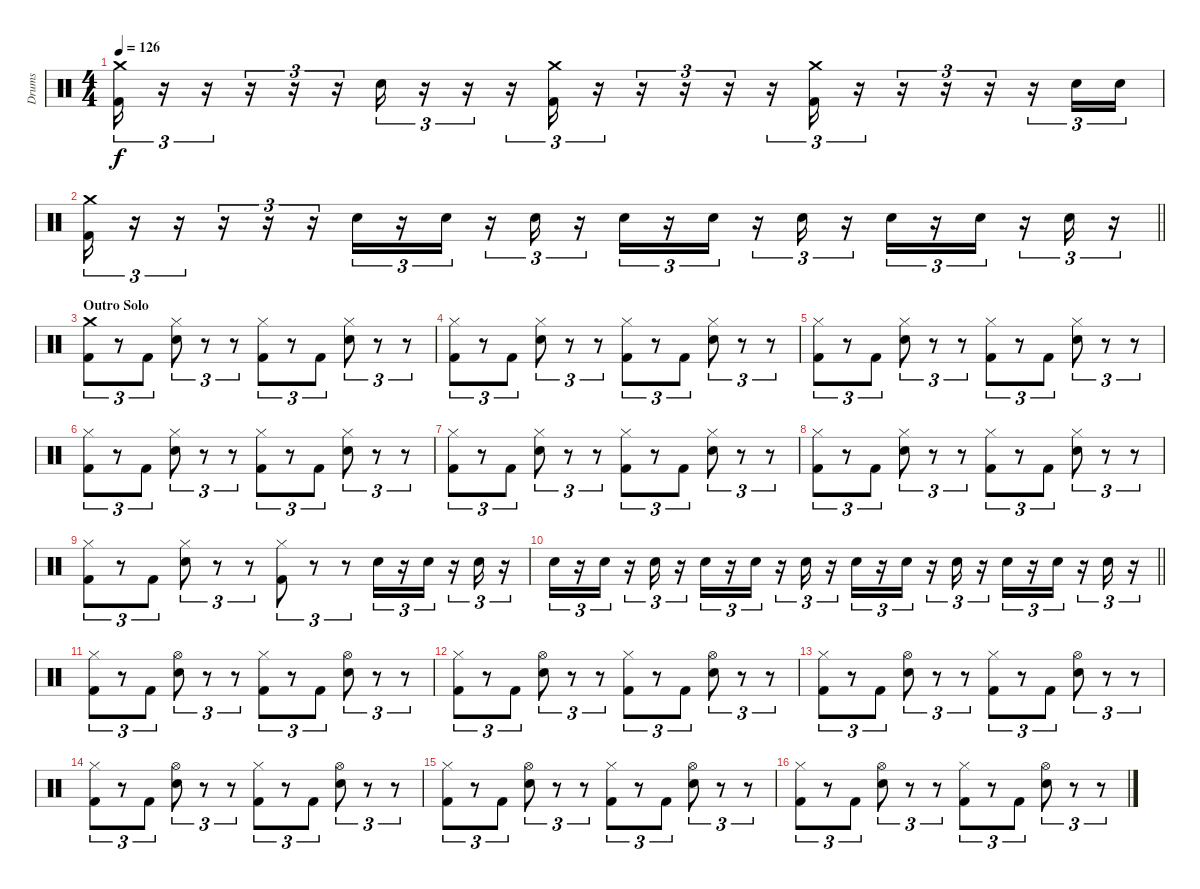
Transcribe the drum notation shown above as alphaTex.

\track ("Drums" "Drums") {instrument percussion}
\staff {score}
\articulation defaults
\ts (4 4)
\tempo 126
\clef neutral
\ks c
("Crash medium (hit)" "Kick (hit) 2").16{tu (3 2) dy f} r.16{tu (3 2)} r.16{tu (3 2)} r.16{tu (3 2)} r.16{tu (3 2)} r.16{tu (3 2)} "Snare (hit) 2".16{tu (3 2)} r.16{tu (3 2)} r.16{tu (3 2)} r.16{tu (3 2)} ("Crash medium (hit)" "Kick (hit) 2").16{tu (3 2)} r.16{tu (3 2)} r.16{tu (3 2)} r.16{tu (3 2)} r.16{tu (3 2)} r.16{tu (3 2)} ("Crash medium (hit)" "Kick (hit) 2").16{tu (3 2)} r.16{tu (3 2)} r.16{tu (3 2)} r.16{tu (3 2)} r.16{tu (3 2)} r.16{tu (3 2)} "Snare (hit) 2".16{tu (3 2)} "Snare (hit) 2".16{tu (3 2)} |
\barLineRight lightlight
("Crash medium (hit)" "Kick (hit) 2").16{tu (3 2)} r.16{tu (3 2)} r.16{tu (3 2)} r.16{tu (3 2)} r.16{tu (3 2)} r.16{tu (3 2)} "Snare (hit) 2".16{tu (3 2)} r.16{tu (3 2)} "Snare (hit) 2".16{tu (3 2)} r.16{tu (3 2)} "Snare (hit) 2".16{tu (3 2)} r.16{tu (3 2)} "Snare (hit) 2".16{tu (3 2)} r.16{tu (3 2)} "Snare (hit) 2".16{tu (3 2)} r.16{tu (3 2)} "Snare (hit) 2".16{tu (3 2)} r.16{tu (3 2)} "Snare (hit) 2".16{tu (3 2)} r.16{tu (3 2)} "Snare (hit) 2".16{tu (3 2)} r.16{tu (3 2)} "Snare (hit) 2".16{tu (3 2)} r.16{tu (3 2)} |
\section ("" "Outro Solo")
("Crash medium (hit)" "Kick (hit) 2").8{tu (3 2)} r.8{tu (3 2)} "Kick (hit) 2".8{tu (3 2)} ("Hi-Hat (closed)" "Snare (hit) 2").8{tu (3 2)} r.8{tu (3 2)} r.8{tu (3 2)} ("Hi-Hat (closed)" "Kick (hit) 2").8{tu (3 2)} r.8{tu (3 2)} "Kick (hit) 2".8{tu (3 2)} ("Hi-Hat (closed)" "Snare (hit) 2").8{tu (3 2)} r.8{tu (3 2)} r.8{tu (3 2)} |
("Hi-Hat (closed)" "Kick (hit) 2").8{tu (3 2)} r.8{tu (3 2)} "Kick (hit) 2".8{tu (3 2)} ("Hi-Hat (closed)" "Snare (hit) 2").8{tu (3 2)} r.8{tu (3 2)} r.8{tu (3 2)} ("Hi-Hat (closed)" "Kick (hit) 2").8{tu (3 2)} r.8{tu (3 2)} "Kick (hit) 2".8{tu (3 2)} ("Hi-Hat (closed)" "Snare (hit) 2").8{tu (3 2)} r.8{tu (3 2)} r.8{tu (3 2)} |
("Hi-Hat (closed)" "Kick (hit) 2").8{tu (3 2)} r.8{tu (3 2)} "Kick (hit) 2".8{tu (3 2)} ("Hi-Hat (closed)" "Snare (hit) 2").8{tu (3 2)} r.8{tu (3 2)} r.8{tu (3 2)} ("Hi-Hat (closed)" "Kick (hit) 2").8{tu (3 2)} r.8{tu (3 2)} "Kick (hit) 2".8{tu (3 2)} ("Hi-Hat (closed)" "Snare (hit) 2").8{tu (3 2)} r.8{tu (3 2)} r.8{tu (3 2)} |
("Hi-Hat (closed)" "Kick (hit) 2").8{tu (3 2)} r.8{tu (3 2)} "Kick (hit) 2".8{tu (3 2)} ("Hi-Hat (closed)" "Snare (hit) 2").8{tu (3 2)} r.8{tu (3 2)} r.8{tu (3 2)} ("Hi-Hat (closed)" "Kick (hit) 2").8{tu (3 2)} r.8{tu (3 2)} "Kick (hit) 2".8{tu (3 2)} ("Hi-Hat (closed)" "Snare (hit) 2").8{tu (3 2)} r.8{tu (3 2)} r.8{tu (3 2)} |
("Hi-Hat (closed)" "Kick (hit) 2").8{tu (3 2)} r.8{tu (3 2)} "Kick (hit) 2".8{tu (3 2)} ("Hi-Hat (closed)" "Snare (hit) 2").8{tu (3 2)} r.8{tu (3 2)} r.8{tu (3 2)} ("Hi-Hat (closed)" "Kick (hit) 2").8{tu (3 2)} r.8{tu (3 2)} "Kick (hit) 2".8{tu (3 2)} ("Hi-Hat (closed)" "Snare (hit) 2").8{tu (3 2)} r.8{tu (3 2)} r.8{tu (3 2)} |
("Hi-Hat (closed)" "Kick (hit) 2").8{tu (3 2)} r.8{tu (3 2)} "Kick (hit) 2".8{tu (3 2)} ("Hi-Hat (closed)" "Snare (hit) 2").8{tu (3 2)} r.8{tu (3 2)} r.8{tu (3 2)} ("Hi-Hat (closed)" "Kick (hit) 2").8{tu (3 2)} r.8{tu (3 2)} "Kick (hit) 2".8{tu (3 2)} ("Hi-Hat (closed)" "Snare (hit) 2").8{tu (3 2)} r.8{tu (3 2)} r.8{tu (3 2)} |
("Hi-Hat (closed)" "Kick (hit) 2").8{tu (3 2)} r.8{tu (3 2)} "Kick (hit) 2".8{tu (3 2)} ("Hi-Hat (closed)" "Snare (hit) 2").8{tu (3 2)} r.8{tu (3 2)} r.8{tu (3 2)} ("Hi-Hat (closed)" "Kick (hit) 2").8{tu (3 2)} r.8{tu (3 2)} r.8{tu (3 2)} "Snare (hit) 2".16{tu (3 2)} r.16{tu (3 2)} "Snare (hit) 2".16{tu (3 2)} r.16{tu (3 2)} "Snare (hit) 2".16{tu (3 2)} r.16{tu (3 2)} |
\barLineRight lightlight "Snare (hit) 2".16{tu (3 2)}
r.16{tu (3 2)} "Snare (hit) 2".16{tu (3 2)} r.16{tu (3 2)} "Snare (hit) 2".16{tu (3 2)} r.16{tu (3 2)} "Snare (hit) 2".16{tu (3 2)} r.16{tu (3 2)} "Snare (hit) 2".16{tu (3 2)} r.16{tu (3 2)} "Snare (hit) 2".16{tu (3 2)} r.16{tu (3 2)} "Snare (hit) 2".16{tu (3 2)} r.16{tu (3 2)} "Snare (hit) 2".16{tu (3 2)} r.16{tu (3 2)} "Snare (hit) 2".16{tu (3 2)} r.16{tu (3 2)} "Snare (hit) 2".16{tu (3 2)} r.16{tu (3 2)} "Snare (hit) 2".16{tu (3 2)} r.16{tu (3 2)} "Snare (hit) 2".16{tu (3 2)} r.16{tu (3 2)} |
("Hi-Hat (closed)" "Kick (hit) 2").8{tu (3 2)} r.8{tu (3 2)} "Kick (hit) 2".8{tu (3 2)} ("Hi-Hat (open)" "Snare (hit) 2").8{tu (3 2)} r.8{tu (3 2)} r.8{tu (3 2)} ("Hi-Hat (closed)" "Kick (hit) 2").8{tu (3 2)} r.8{tu (3 2)} "Kick (hit) 2".8{tu (3 2)} ("Hi-Hat (open)" "Snare (hit) 2").8{tu (3 2)} r.8{tu (3 2)} r.8{tu (3 2)} |
("Hi-Hat (closed)" "Kick (hit) 2").8{tu (3 2)} r.8{tu (3 2)} "Kick (hit) 2".8{tu (3 2)} ("Hi-Hat (open)" "Snare (hit) 2").8{tu (3 2)} r.8{tu (3 2)} r.8{tu (3 2)} ("Hi-Hat (closed)" "Kick (hit) 2").8{tu (3 2)} r.8{tu (3 2)} "Kick (hit) 2".8{tu (3 2)} ("Hi-Hat (open)" "Snare (hit) 2").8{tu (3 2)} r.8{tu (3 2)} r.8{tu (3 2)} |
("Hi-Hat (closed)" "Kick (hit) 2").8{tu (3 2)} r.8{tu (3 2)} "Kick (hit) 2".8{tu (3 2)} ("Hi-Hat (open)" "Snare (hit) 2").8{tu (3 2)} r.8{tu (3 2)} r.8{tu (3 2)} ("Hi-Hat (closed)" "Kick (hit) 2").8{tu (3 2)} r.8{tu (3 2)} "Kick (hit) 2".8{tu (3 2)} ("Hi-Hat (open)" "Snare (hit) 2").8{tu (3 2)} r.8{tu (3 2)} r.8{tu (3 2)} |
("Hi-Hat (closed)" "Kick (hit) 2").8{tu (3 2)} r.8{tu (3 2)} "Kick (hit) 2".8{tu (3 2)} ("Hi-Hat (open)" "Snare (hit) 2").8{tu (3 2)} r.8{tu (3 2)} r.8{tu (3 2)} ("Hi-Hat (closed)" "Kick (hit) 2").8{tu (3 2)} r.8{tu (3 2)} "Kick (hit) 2".8{tu (3 2)} ("Hi-Hat (open)" "Snare (hit) 2").8{tu (3 2)} r.8{tu (3 2)} r.8{tu (3 2)} |
("Hi-Hat (closed)" "Kick (hit) 2").8{tu (3 2)} r.8{tu (3 2)} "Kick (hit) 2".8{tu (3 2)} ("Hi-Hat (open)" "Snare (hit) 2").8{tu (3 2)} r.8{tu (3 2)} r.8{tu (3 2)} ("Hi-Hat (closed)" "Kick (hit) 2").8{tu (3 2)} r.8{tu (3 2)} "Kick (hit) 2".8{tu (3 2)} ("Hi-Hat (open)" "Snare (hit) 2").8{tu (3 2)} r.8{tu (3 2)} r.8{tu (3 2)} |
("Hi-Hat (closed)" "Kick (hit) 2").8{tu (3 2)} r.8{tu (3 2)} "Kick (hit) 2".8{tu (3 2)} ("Hi-Hat (open)" "Snare (hit) 2").8{tu (3 2)} r.8{tu (3 2)} r.8{tu (3 2)} ("Hi-Hat (closed)" "Kick (hit) 2").8{tu (3 2)} r.8{tu (3 2)} "Kick (hit) 2".8{tu (3 2)} ("Hi-Hat (open)" "Snare (hit) 2").8{tu (3 2)} r.8{tu (3 2)} r.8{tu (3 2)}
